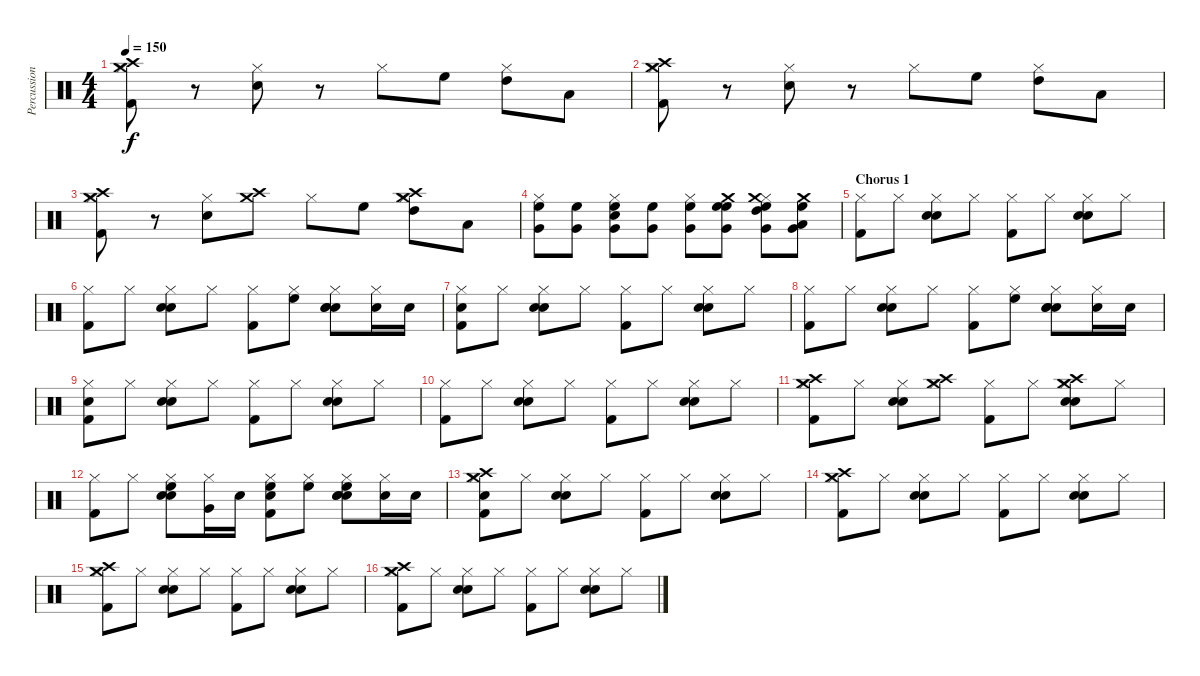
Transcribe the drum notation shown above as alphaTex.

\track ("Percussion" "Percussion") {instrument percussion}
\staff {score}
\articulation defaults
\ts (4 4)
\tempo 150
\clef neutral
\ks c
("Hi-Hat (closed)" "Kick (hit) 2" "Crash medium (hit)" "Crash high (hit)").8{dy f} r.8 ("Hi-Hat (closed)" "Snare (hit) 2").8 r.8 "Hi-Hat (closed)".8 "High Floor Tom (hit)".8 ("Hi-Hat (closed)" "High Tom (hit)").8 "Low Tom (hit)".8 |
("Hi-Hat (closed)" "Kick (hit) 2" "Crash high (hit)" "Crash medium (hit)").8 r.8 ("Hi-Hat (closed)" "Snare (hit) 2").8 r.8 "Hi-Hat (closed)".8 "High Floor Tom (hit)".8 ("Hi-Hat (closed)" "High Tom (hit)").8 "Low Tom (hit)".8 |
("Hi-Hat (closed)" "Kick (hit) 2" "Crash medium (hit)" "Crash high (hit)").8 r.8 ("Hi-Hat (closed)" "Snare (hit) 2").8 ("Crash medium (hit)" "Crash high (hit)").8 "Hi-Hat (closed)".8 "High Floor Tom (hit)".8 ("Hi-Hat (closed)" "High Tom (hit)" "Crash medium (hit)" "Crash high (hit)").8 "Low Tom (hit)".8 |
("Hi-Hat (closed)" "High Floor Tom (hit)" "Very Low Tom (hit)").8 ("High Floor Tom (hit)" "Very Low Tom (hit)").8 ("Hi-Hat (closed)" "High Floor Tom (hit)" "Snare (hit) 2" "Very Low Tom (hit)").8 ("High Floor Tom (hit)" "Very Low Tom (hit)").8 ("Hi-Hat (closed)" "High Floor Tom (hit)" "Very Low Tom (hit)").8 ("High Floor Tom (hit)" "High Floor Tom (hit)" "Very Low Tom (hit)" "Crash medium (hit)").8 ("Hi-Hat (closed)" "High Floor Tom (hit)" "High Tom (hit)" "Very Low Tom (hit)" "Crash medium (hit)").8 ("High Floor Tom (hit)" "Low Tom (hit)" "Very Low Tom (hit)" "Crash medium (hit)").8 |
\section ("" "Chorus 1")
("Hi-Hat (closed)" "Kick (hit) 2").8 "Hi-Hat (closed)".8 ("Hi-Hat (closed)" "Snare (hit) 2" "Electric Snare (hit)").8 "Hi-Hat (closed)".8 ("Hi-Hat (closed)" "Kick (hit) 2").8 "Hi-Hat (closed)".8 ("Hi-Hat (closed)" "Snare (hit) 2" "Electric Snare (hit)").8 "Hi-Hat (closed)".8 |
("Hi-Hat (closed)" "Kick (hit) 2").8 "Hi-Hat (closed)".8 ("Hi-Hat (closed)" "Snare (hit) 2" "Electric Snare (hit)").8 "Hi-Hat (closed)".8 ("Hi-Hat (closed)" "Kick (hit) 2").8 ("Hi-Hat (closed)" "High Floor Tom (hit)").8 ("Hi-Hat (closed)" "Snare (hit) 2" "Electric Snare (hit)" "Snare (hit) 2").8 ("Hi-Hat (closed)" "Snare (hit) 2").16 "Snare (hit) 2".16 |
("Hi-Hat (closed)" "Kick (hit) 2" "Snare (hit) 2").8 "Hi-Hat (closed)".8 ("Hi-Hat (closed)" "Snare (hit) 2" "Electric Snare (hit)").8 "Hi-Hat (closed)".8 ("Hi-Hat (closed)" "Kick (hit) 2").8 "Hi-Hat (closed)".8 ("Hi-Hat (closed)" "Snare (hit) 2" "Electric Snare (hit)").8 "Hi-Hat (closed)".8 |
("Hi-Hat (closed)" "Kick (hit) 2").8 "Hi-Hat (closed)".8 ("Hi-Hat (closed)" "Snare (hit) 2" "Electric Snare (hit)").8 "Hi-Hat (closed)".8 ("Hi-Hat (closed)" "Kick (hit) 2").8 ("Hi-Hat (closed)" "High Floor Tom (hit)").8 ("Hi-Hat (closed)" "Snare (hit) 2" "Electric Snare (hit)" "Snare (hit) 2").8 ("Hi-Hat (closed)" "Snare (hit) 2").16 "Snare (hit) 2".16 |
("Hi-Hat (closed)" "Kick (hit) 2" "Snare (hit) 2").8 "Hi-Hat (closed)".8 ("Hi-Hat (closed)" "Snare (hit) 2" "Electric Snare (hit)").8 "Hi-Hat (closed)".8 ("Hi-Hat (closed)" "Kick (hit) 2").8 "Hi-Hat (closed)".8 ("Hi-Hat (closed)" "Snare (hit) 2" "Electric Snare (hit)").8 "Hi-Hat (closed)".8 |
("Hi-Hat (closed)" "Kick (hit) 2").8 "Hi-Hat (closed)".8 ("Hi-Hat (closed)" "Snare (hit) 2" "Electric Snare (hit)").8 "Hi-Hat (closed)".8 ("Hi-Hat (closed)" "Kick (hit) 2").8 "Hi-Hat (closed)".8 ("Hi-Hat (closed)" "Snare (hit) 2" "Electric Snare (hit)").8 "Hi-Hat (closed)".8 |
("Hi-Hat (closed)" "Kick (hit) 2" "Crash high (hit)" "Crash medium (hit)").8 "Hi-Hat (closed)".8 ("Hi-Hat (closed)" "Snare (hit) 2" "Electric Snare (hit)").8 ("Hi-Hat (closed)" "Crash high (hit)" "Crash medium (hit)").8 ("Hi-Hat (closed)" "Kick (hit) 2").8 "Hi-Hat (closed)".8 ("Hi-Hat (closed)" "Snare (hit) 2" "Electric Snare (hit)" "Crash high (hit)" "Crash medium (hit)").8 "Hi-Hat (closed)".8 |
("Hi-Hat (closed)" "Kick (hit) 2").8 "Hi-Hat (closed)".8 ("Hi-Hat (closed)" "Snare (hit) 2" "Electric Snare (hit)" "High Floor Tom (hit)").8 ("Hi-Hat (closed)" "Very Low Tom (hit)").16 "Snare (hit) 2".16 ("Hi-Hat (closed)" "Kick (hit) 2" "Snare (hit) 2" "High Floor Tom (hit)").8 ("Hi-Hat (closed)" "High Floor Tom (hit)").8 ("Hi-Hat (closed)" "Snare (hit) 2" "Electric Snare (hit)" "Snare (hit) 2" "High Floor Tom (hit)").8 ("Hi-Hat (closed)" "Snare (hit) 2").16 "Snare (hit) 2".16 |
("Hi-Hat (closed)" "Kick (hit) 2" "Crash high (hit)" "Snare (hit) 2" "Crash medium (hit)").8 "Hi-Hat (closed)".8 ("Hi-Hat (closed)" "Snare (hit) 2" "Electric Snare (hit)").8 "Hi-Hat (closed)".8 ("Hi-Hat (closed)" "Kick (hit) 2").8 "Hi-Hat (closed)".8 ("Hi-Hat (closed)" "Snare (hit) 2" "Electric Snare (hit)").8 "Hi-Hat (closed)".8 |
("Hi-Hat (closed)" "Kick (hit) 2" "Crash medium (hit)" "Crash high (hit)").8 "Hi-Hat (closed)".8 ("Hi-Hat (closed)" "Snare (hit) 2" "Electric Snare (hit)").8 "Hi-Hat (closed)".8 ("Hi-Hat (closed)" "Kick (hit) 2").8 "Hi-Hat (closed)".8 ("Hi-Hat (closed)" "Snare (hit) 2" "Electric Snare (hit)").8 "Hi-Hat (closed)".8 |
("Hi-Hat (closed)" "Kick (hit) 2" "Crash medium (hit)" "Crash high (hit)").8 "Hi-Hat (closed)".8 ("Hi-Hat (closed)" "Snare (hit) 2" "Electric Snare (hit)").8 "Hi-Hat (closed)".8 ("Hi-Hat (closed)" "Kick (hit) 2").8 "Hi-Hat (closed)".8 ("Hi-Hat (closed)" "Snare (hit) 2" "Electric Snare (hit)").8 "Hi-Hat (closed)".8 |
("Hi-Hat (closed)" "Kick (hit) 2" "Crash medium (hit)" "Crash high (hit)").8 "Hi-Hat (closed)".8 ("Hi-Hat (closed)" "Snare (hit) 2" "Electric Snare (hit)").8 "Hi-Hat (closed)".8 ("Hi-Hat (closed)" "Kick (hit) 2").8 "Hi-Hat (closed)".8 ("Hi-Hat (closed)" "Snare (hit) 2" "Electric Snare (hit)").8 "Hi-Hat (closed)".8
